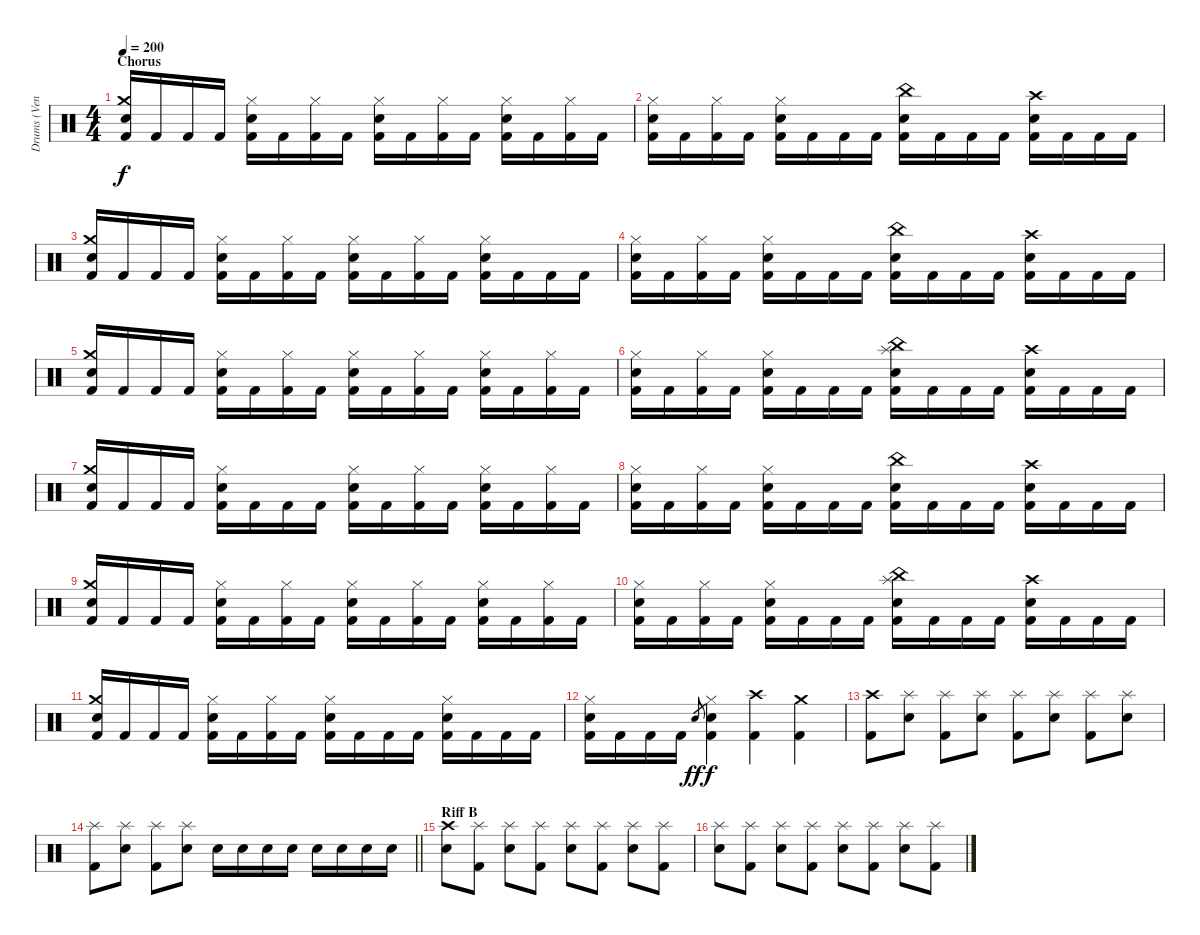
\track ("Drums (Ventor)" "Drums (Ven") {instrument percussion}
\staff {score}
\articulation defaults
\ts (4 4)
\section ("" "Chorus")
\tempo 200
\clef neutral
\ks c
("Electric Snare (hit)" "Crash medium (hit)" "Kick (hit) 2").16{dy f} "Kick (hit) 2".16 "Kick (hit) 2".16 "Kick (hit) 2".16 ("Electric Snare (hit)" "Hi-Hat (closed)" "Kick (hit) 2").16 "Kick (hit) 2".16 ("Hi-Hat (closed)" "Kick (hit) 2").16 "Kick (hit) 2".16 ("Electric Snare (hit)" "Hi-Hat (closed)" "Kick (hit) 2").16 "Kick (hit) 2".16 ("Hi-Hat (closed)" "Kick (hit) 2").16 "Kick (hit) 2".16 ("Electric Snare (hit)" "Hi-Hat (closed)" "Kick (hit) 2").16 "Kick (hit) 2".16 ("Hi-Hat (closed)" "Kick (hit) 2").16 "Kick (hit) 2".16 |
("Electric Snare (hit)" "Hi-Hat (closed)" "Kick (hit) 2").16 "Kick (hit) 2".16 ("Hi-Hat (closed)" "Kick (hit) 2").16 "Kick (hit) 2".16 ("Electric Snare (hit)" "Hi-Hat (closed)" "Kick (hit) 2").16 "Kick (hit) 2".16 "Kick (hit) 2".16 "Kick (hit) 2".16 ("Electric Snare (hit)" "China (hit)" "Kick (hit) 2").16 "Kick (hit) 2".16 "Kick (hit) 2".16 "Kick (hit) 2".16 ("Electric Snare (hit)" "Crash high (hit)" "Kick (hit) 2").16 "Kick (hit) 2".16 "Kick (hit) 2".16 "Kick (hit) 2".16 |
("Electric Snare (hit)" "Crash medium (hit)" "Kick (hit) 2").16 "Kick (hit) 2".16 "Kick (hit) 2".16 "Kick (hit) 2".16 ("Electric Snare (hit)" "Hi-Hat (closed)" "Kick (hit) 2").16 "Kick (hit) 2".16 ("Hi-Hat (closed)" "Kick (hit) 2").16 "Kick (hit) 2".16 ("Electric Snare (hit)" "Hi-Hat (closed)" "Kick (hit) 2").16 "Kick (hit) 2".16 ("Hi-Hat (closed)" "Kick (hit) 2").16 "Kick (hit) 2".16 ("Electric Snare (hit)" "Hi-Hat (closed)" "Kick (hit) 2").16 "Kick (hit) 2".16 "Kick (hit) 2".16 "Kick (hit) 2".16 |
("Electric Snare (hit)" "Hi-Hat (closed)" "Kick (hit) 2").16 "Kick (hit) 2".16 ("Hi-Hat (closed)" "Kick (hit) 2").16 "Kick (hit) 2".16 ("Electric Snare (hit)" "Hi-Hat (closed)" "Kick (hit) 2").16 "Kick (hit) 2".16 "Kick (hit) 2".16 "Kick (hit) 2".16 ("Electric Snare (hit)" "China (hit)" "Kick (hit) 2").16 "Kick (hit) 2".16 "Kick (hit) 2".16 "Kick (hit) 2".16 ("Electric Snare (hit)" "Crash high (hit)" "Kick (hit) 2").16 "Kick (hit) 2".16 "Kick (hit) 2".16 "Kick (hit) 2".16 |
("Electric Snare (hit)" "Crash medium (hit)" "Kick (hit) 2").16 "Kick (hit) 2".16 "Kick (hit) 2".16 "Kick (hit) 2".16 ("Electric Snare (hit)" "Hi-Hat (closed)" "Kick (hit) 2").16 "Kick (hit) 2".16 ("Hi-Hat (closed)" "Kick (hit) 2").16 "Kick (hit) 2".16 ("Electric Snare (hit)" "Hi-Hat (closed)" "Kick (hit) 2").16 "Kick (hit) 2".16 ("Hi-Hat (closed)" "Kick (hit) 2").16 "Kick (hit) 2".16 ("Electric Snare (hit)" "Hi-Hat (closed)" "Kick (hit) 2").16 "Kick (hit) 2".16 ("Hi-Hat (closed)" "Kick (hit) 2").16 "Kick (hit) 2".16 |
("Electric Snare (hit)" "Hi-Hat (closed)" "Kick (hit) 2").16 "Kick (hit) 2".16 ("Hi-Hat (closed)" "Kick (hit) 2").16 "Kick (hit) 2".16 ("Electric Snare (hit)" "Hi-Hat (closed)" "Kick (hit) 2").16 "Kick (hit) 2".16 "Kick (hit) 2".16 "Kick (hit) 2".16 ("Electric Snare (hit)" "China (hit)" "Splash (hit)" "Kick (hit) 2").16 "Kick (hit) 2".16 "Kick (hit) 2".16 "Kick (hit) 2".16 ("Electric Snare (hit)" "Crash high (hit)" "Kick (hit) 2").16 "Kick (hit) 2".16 "Kick (hit) 2".16 "Kick (hit) 2".16 |
("Electric Snare (hit)" "Crash medium (hit)" "Kick (hit) 2").16 "Kick (hit) 2".16 "Kick (hit) 2".16 "Kick (hit) 2".16 ("Electric Snare (hit)" "Hi-Hat (closed)" "Kick (hit) 2").16 "Kick (hit) 2".16 "Kick (hit) 2".16 "Kick (hit) 2".16 ("Electric Snare (hit)" "Hi-Hat (closed)" "Kick (hit) 2").16 "Kick (hit) 2".16 ("Hi-Hat (closed)" "Kick (hit) 2").16 "Kick (hit) 2".16 ("Electric Snare (hit)" "Hi-Hat (closed)" "Kick (hit) 2").16 "Kick (hit) 2".16 ("Hi-Hat (closed)" "Kick (hit) 2").16 "Kick (hit) 2".16 |
("Electric Snare (hit)" "Hi-Hat (closed)" "Kick (hit) 2").16 "Kick (hit) 2".16 ("Hi-Hat (closed)" "Kick (hit) 2").16 "Kick (hit) 2".16 ("Electric Snare (hit)" "Hi-Hat (closed)" "Kick (hit) 2").16 "Kick (hit) 2".16 "Kick (hit) 2".16 "Kick (hit) 2".16 ("Electric Snare (hit)" "China (hit)" "Kick (hit) 2").16 "Kick (hit) 2".16 "Kick (hit) 2".16 "Kick (hit) 2".16 ("Electric Snare (hit)" "Crash high (hit)" "Kick (hit) 2").16 "Kick (hit) 2".16 "Kick (hit) 2".16 "Kick (hit) 2".16 |
("Electric Snare (hit)" "Crash medium (hit)" "Kick (hit) 2").16 "Kick (hit) 2".16 "Kick (hit) 2".16 "Kick (hit) 2".16 ("Electric Snare (hit)" "Hi-Hat (closed)" "Kick (hit) 2").16 "Kick (hit) 2".16 ("Hi-Hat (closed)" "Kick (hit) 2").16 "Kick (hit) 2".16 ("Electric Snare (hit)" "Hi-Hat (closed)" "Kick (hit) 2").16 "Kick (hit) 2".16 ("Hi-Hat (closed)" "Kick (hit) 2").16 "Kick (hit) 2".16 ("Electric Snare (hit)" "Hi-Hat (closed)" "Kick (hit) 2").16 "Kick (hit) 2".16 ("Hi-Hat (closed)" "Kick (hit) 2").16 "Kick (hit) 2".16 |
("Electric Snare (hit)" "Hi-Hat (closed)" "Kick (hit) 2").16 "Kick (hit) 2".16 ("Hi-Hat (closed)" "Kick (hit) 2").16 "Kick (hit) 2".16 ("Electric Snare (hit)" "Hi-Hat (closed)" "Kick (hit) 2").16 "Kick (hit) 2".16 "Kick (hit) 2".16 "Kick (hit) 2".16 ("Electric Snare (hit)" "China (hit)" "Splash (hit)" "Kick (hit) 2").16 "Kick (hit) 2".16 "Kick (hit) 2".16 "Kick (hit) 2".16 ("Electric Snare (hit)" "Crash high (hit)" "Kick (hit) 2").16 "Kick (hit) 2".16 "Kick (hit) 2".16 "Kick (hit) 2".16 |
("Electric Snare (hit)" "Crash medium (hit)" "Kick (hit) 2").16 "Kick (hit) 2".16 "Kick (hit) 2".16 "Kick (hit) 2".16 ("Electric Snare (hit)" "Hi-Hat (closed)" "Kick (hit) 2").16 "Kick (hit) 2".16 ("Hi-Hat (closed)" "Kick (hit) 2").16 "Kick (hit) 2".16 ("Electric Snare (hit)" "Hi-Hat (closed)" "Kick (hit) 2").16 "Kick (hit) 2".16 "Kick (hit) 2".16 "Kick (hit) 2".16 ("Electric Snare (hit)" "Hi-Hat (closed)" "Kick (hit) 2").16 "Kick (hit) 2".16 "Kick (hit) 2".16 "Kick (hit) 2".16 |
("Electric Snare (hit)" "Hi-Hat (closed)" "Kick (hit) 2").16 "Kick (hit) 2".16 "Kick (hit) 2".16 "Kick (hit) 2".16 "Electric Snare (hit)".8{gr dy ff} ("Electric Snare (hit)" "Hi-Hat (closed)" "Kick (hit) 2").4{dy f} ("Crash high (hit)" "Kick (hit) 2").4 ("Crash medium (hit)" "Kick (hit) 2").4 |
("Crash high (hit)" "Kick (hit) 2").8 ("Electric Snare (hit)" "Splash (hit)").8 ("Splash (hit)" "Kick (hit) 2").8 ("Electric Snare (hit)" "Splash (hit)").8 ("Splash (hit)" "Kick (hit) 2").8 ("Electric Snare (hit)" "Splash (hit)").8 ("Splash (hit)" "Kick (hit) 2").8 ("Electric Snare (hit)" "Splash (hit)").8 |
\barLineRight lightlight
("Splash (hit)" "Kick (hit) 2").8 ("Electric Snare (hit)" "Splash (hit)").8 ("Splash (hit)" "Kick (hit) 2").8 ("Electric Snare (hit)" "Splash (hit)").8 "Electric Snare (hit)".16 "Electric Snare (hit)".16 "Electric Snare (hit)".16 "Electric Snare (hit)".16 "Electric Snare (hit)".16 "Electric Snare (hit)".16 "Electric Snare (hit)".16 "Electric Snare (hit)".16 |
\section ("" "Riff B")
("Electric Snare (hit)" "Crash high (hit)").8 ("Splash (hit)" "Kick (hit) 2").8 ("Electric Snare (hit)" "Splash (hit)").8 ("Splash (hit)" "Kick (hit) 2").8 ("Electric Snare (hit)" "Splash (hit)").8 ("Splash (hit)" "Kick (hit) 2").8 ("Electric Snare (hit)" "Splash (hit)").8 ("Splash (hit)" "Kick (hit) 2").8 |
("Electric Snare (hit)" "Splash (hit)").8 ("Splash (hit)" "Kick (hit) 2").8 ("Electric Snare (hit)" "Splash (hit)").8 ("Splash (hit)" "Kick (hit) 2").8 ("Electric Snare (hit)" "Splash (hit)").8 ("Splash (hit)" "Kick (hit) 2").8 ("Electric Snare (hit)" "Splash (hit)").8 ("Splash (hit)" "Kick (hit) 2").8
